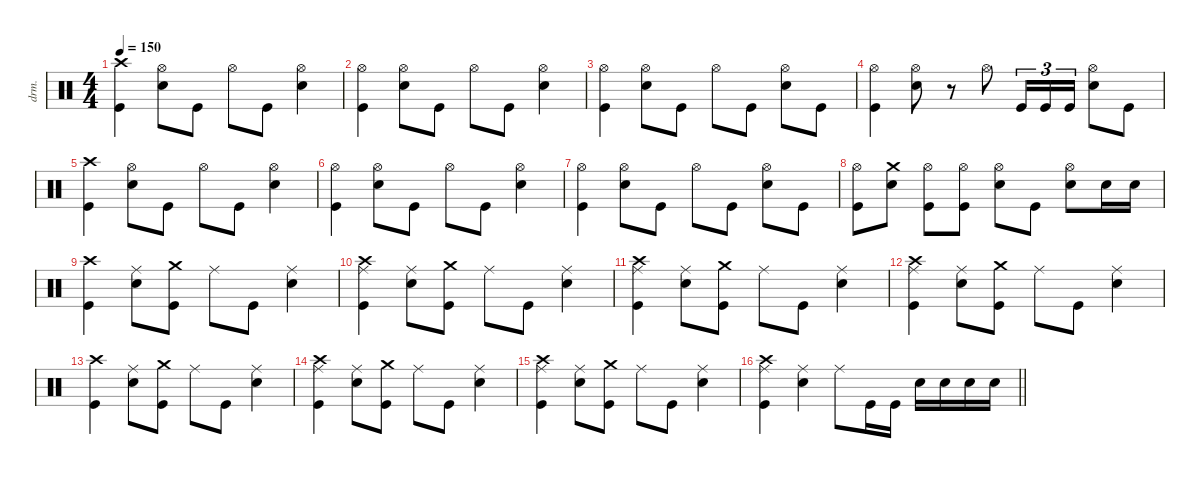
\defaultSystemsLayout 4
\hideDynamics
\bracketExtendMode nobrackets
\otherSystemsTrackNameOrientation horizontal
\track ("Percussions" "drm.") {instrument percussion}
\staff {score}
\articulation defaults
\ts (4 4)
\tempo 150
\clef neutral
\ks c
("Kick (hit)" "Crash high (hit)").4{dy f beam Down} ("Snare (hit) 2" "Hi-Hat (open)").8{beam Down} "Kick (hit)".8{beam Down} "Hi-Hat (open)".8{dy mf beam Down} "Kick (hit)".8{dy f beam Down} ("Snare (hit) 2" "Hi-Hat (open)").4{beam Down} |
("Kick (hit)" "Hi-Hat (open)").4{beam Down} ("Snare (hit) 2" "Hi-Hat (open)").8{beam Down} "Kick (hit)".8{beam Down} "Hi-Hat (open)".8{dy mf beam Down} "Kick (hit)".8{dy f beam Down} ("Snare (hit) 2" "Hi-Hat (open)").4{beam Down} |
("Kick (hit)" "Hi-Hat (open)").4{beam Down} ("Snare (hit) 2" "Hi-Hat (open)").8{beam Down} "Kick (hit)".8{beam Down} "Hi-Hat (open)".8{dy mf beam Down} "Kick (hit)".8{dy f beam Down} ("Snare (hit) 2" "Hi-Hat (open)").8{beam Down} "Kick (hit)".8{beam Down} |
("Kick (hit)" "Hi-Hat (open)").4{beam Down} ("Snare (hit) 2" "Hi-Hat (open)").8{beam Down} r.8{beam Down} "Hi-Hat (open)".8{dy mf beam Down} "Kick (hit)".16{tu (3 2) beam Up} "Kick (hit)".16{tu (3 2) beam Up} "Kick (hit)".16{tu (3 2) beam Up} ("Snare (hit) 2" "Hi-Hat (open)").8{dy f beam Down} "Kick (hit)".8{beam Down} |
("Kick (hit)" "Crash high (hit)").4{beam Down} ("Snare (hit) 2" "Hi-Hat (open)").8{beam Down} "Kick (hit)".8{beam Down} "Hi-Hat (open)".8{dy mf beam Down} "Kick (hit)".8{dy f beam Down} ("Snare (hit) 2" "Hi-Hat (open)").4{beam Down} |
("Kick (hit)" "Hi-Hat (open)").4{beam Down} ("Snare (hit) 2" "Hi-Hat (open)").8{beam Down} "Kick (hit)".8{beam Down} "Hi-Hat (open)".8{dy mf beam Down} "Kick (hit)".8{dy f beam Down} ("Snare (hit) 2" "Hi-Hat (open)").4{beam Down} |
("Kick (hit)" "Hi-Hat (open)").4{beam Down} ("Snare (hit) 2" "Hi-Hat (open)").8{beam Down} "Kick (hit)".8{beam Down} "Hi-Hat (open)".8{dy mf beam Down} "Kick (hit)".8{dy f beam Down} ("Snare (hit) 2" "Hi-Hat (open)").8{beam Down} "Kick (hit)".8{beam Down} |
("Kick (hit)" "Hi-Hat (open)").8{beam Down} ("Snare (hit) 2" "Crash medium (hit)").8{beam Down} ("Kick (hit)" "Hi-Hat (open)").8{beam Down} ("Kick (hit)" "Hi-Hat (open)").8{beam Down} ("Snare (hit) 2" "Hi-Hat (open)").8{beam Down} "Kick (hit)".8{beam Down} ("Snare (hit) 2" "Hi-Hat (open)").8{beam Down} "Snare (hit) 2".16{beam Down} "Snare (hit) 2".16{beam Down} |
("Kick (hit)" "Crash high (hit)").4{beam Down} ("Snare (hit) 2" "Ride (middle)").8{beam Down} ("Kick (hit)" "Crash medium (hit)").8{beam Down} "Ride (middle)".8{beam Down} "Kick (hit)".8{beam Down} ("Snare (hit) 2" "Ride (middle)").4{beam Down} |
("Kick (hit)" "Ride (middle)" "Crash high (hit)").4{beam Down} ("Snare (hit) 2" "Ride (middle)").8{beam Down} ("Kick (hit)" "Crash medium (hit)").8{beam Down} "Ride (middle)".8{beam Down} "Kick (hit)".8{beam Down} ("Snare (hit) 2" "Ride (middle)").4{beam Down} |
("Kick (hit)" "Ride (middle)" "Crash high (hit)").4{beam Down} ("Snare (hit) 2" "Ride (middle)").8{beam Down} ("Kick (hit)" "Crash medium (hit)").8{beam Down} "Ride (middle)".8{beam Down} "Kick (hit)".8{beam Down} ("Snare (hit) 2" "Ride (middle)").4{beam Down} |
("Kick (hit)" "Ride (middle)" "Crash high (hit)").4{beam Down} ("Snare (hit) 2" "Ride (middle)").8{beam Down} ("Kick (hit)" "Crash medium (hit)").8{beam Down} "Ride (middle)".8{beam Down} "Kick (hit)".8{beam Down} ("Snare (hit) 2" "Ride (middle)").4{beam Down} |
("Kick (hit)" "Crash high (hit)").4{beam Down} ("Snare (hit) 2" "Ride (middle)").8{beam Down} ("Kick (hit)" "Crash medium (hit)").8{beam Down} "Ride (middle)".8{beam Down} "Kick (hit)".8{beam Down} ("Snare (hit) 2" "Ride (middle)").4{beam Down} |
("Kick (hit)" "Ride (middle)" "Crash high (hit)").4{beam Down} ("Snare (hit) 2" "Ride (middle)").8{beam Down} ("Kick (hit)" "Crash medium (hit)").8{beam Down} "Ride (middle)".8{beam Down} "Kick (hit)".8{beam Down} ("Snare (hit) 2" "Ride (middle)").4{beam Down} |
("Kick (hit)" "Ride (middle)" "Crash high (hit)").4{beam Down} ("Snare (hit) 2" "Ride (middle)").8{beam Down} ("Kick (hit)" "Crash medium (hit)").8{beam Down} "Ride (middle)".8{beam Down} "Kick (hit)".8{beam Down} ("Snare (hit) 2" "Ride (middle)").4{beam Down} |
\barLineRight lightlight
("Kick (hit)" "Ride (middle)" "Crash high (hit)").4{beam Down} ("Snare (hit) 2" "Ride (middle)").4{beam Down} "Ride (middle)".8{dy mf beam Down} "Kick (hit)".16{beam Down} "Kick (hit)".16{beam Down} "Snare (hit) 2".16{dy f beam Down} "Snare (hit) 2".16{beam Down} "Snare (hit) 2".16{beam Down} "Snare (hit) 2".16{beam Down}
